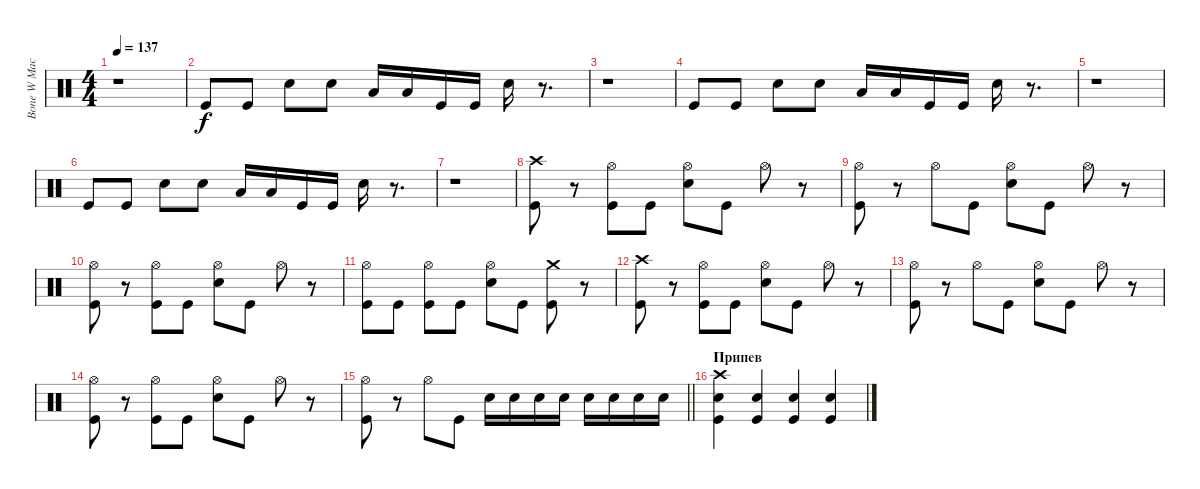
\track ("Bone W Machine Drums" "Bone W Mac") {instrument percussion}
\staff {score}
\articulation defaults
\ts (4 4)
\tempo 137
\clef neutral
\ks c
r.1{dy f} |
"Kick (hit)".8 "Kick (hit)".8 "Snare (hit) 2".8 "Snare (hit) 2".8 "Low Tom (hit)".16 "Low Tom (hit)".16 "Kick (hit)".16 "Kick (hit)".16 "Snare (hit) 2".16 r.8{d} |
r.1 |
"Kick (hit)".8 "Kick (hit)".8 "Snare (hit) 2".8 "Snare (hit) 2".8 "Low Tom (hit)".16 "Low Tom (hit)".16 "Kick (hit)".16 "Kick (hit)".16 "Snare (hit) 2".16 r.8{d} |
r.1 |
"Kick (hit)".8 "Kick (hit)".8 "Snare (hit) 2".8 "Snare (hit) 2".8 "Low Tom (hit)".16 "Low Tom (hit)".16 "Kick (hit)".16 "Kick (hit)".16 "Snare (hit) 2".16 r.8{d} |
r.1 |
("Crash high (hit)" "Kick (hit)").8 r.8 ("Hi-Hat (open)" "Kick (hit)").8 "Kick (hit)".8 ("Hi-Hat (open)" "Snare (hit) 2").8 "Kick (hit)".8 "Hi-Hat (open)".8 r.8 |
("Hi-Hat (open)" "Kick (hit)").8 r.8 "Hi-Hat (open)".8 "Kick (hit)".8 ("Hi-Hat (open)" "Snare (hit) 2").8 "Kick (hit)".8 "Hi-Hat (open)".8 r.8 |
("Hi-Hat (open)" "Kick (hit)").8 r.8 ("Hi-Hat (open)" "Kick (hit)").8 "Kick (hit)".8 ("Hi-Hat (open)" "Snare (hit) 2").8 "Kick (hit)".8 "Hi-Hat (open)".8 r.8 |
("Hi-Hat (open)" "Kick (hit)").8 "Kick (hit)".8 ("Hi-Hat (open)" "Kick (hit)").8 "Kick (hit)".8 ("Hi-Hat (open)" "Snare (hit) 2").8 "Kick (hit)".8 ("Crash medium (hit)" "Kick (hit)").8 r.8 |
("Crash high (hit)" "Kick (hit)").8 r.8 ("Hi-Hat (open)" "Kick (hit)").8 "Kick (hit)".8 ("Hi-Hat (open)" "Snare (hit) 2").8 "Kick (hit)".8 "Hi-Hat (open)".8 r.8 |
("Hi-Hat (open)" "Kick (hit)").8 r.8 "Hi-Hat (open)".8 "Kick (hit)".8 ("Hi-Hat (open)" "Snare (hit) 2").8 "Kick (hit)".8 "Hi-Hat (open)".8 r.8 |
("Hi-Hat (open)" "Kick (hit)").8 r.8 ("Hi-Hat (open)" "Kick (hit)").8 "Kick (hit)".8 ("Hi-Hat (open)" "Snare (hit) 2").8 "Kick (hit)".8 "Hi-Hat (open)".8 r.8 |
\barLineRight lightlight
("Hi-Hat (open)" "Kick (hit)").8 r.8 "Hi-Hat (open)".8 "Kick (hit)".8 "Snare (hit) 2".16 "Snare (hit) 2".16 "Snare (hit) 2".16 "Snare (hit) 2".16 "Snare (hit) 2".16 "Snare (hit) 2".16 "Snare (hit) 2".16 "Snare (hit) 2".16 |
\section ("" "Припев")
("Crash high (hit)" "Snare (hit) 2" "Kick (hit)").4 ("Snare (hit) 2" "Kick (hit)").4 ("Snare (hit) 2" "Kick (hit)").4 ("Snare (hit) 2" "Kick (hit)").4
